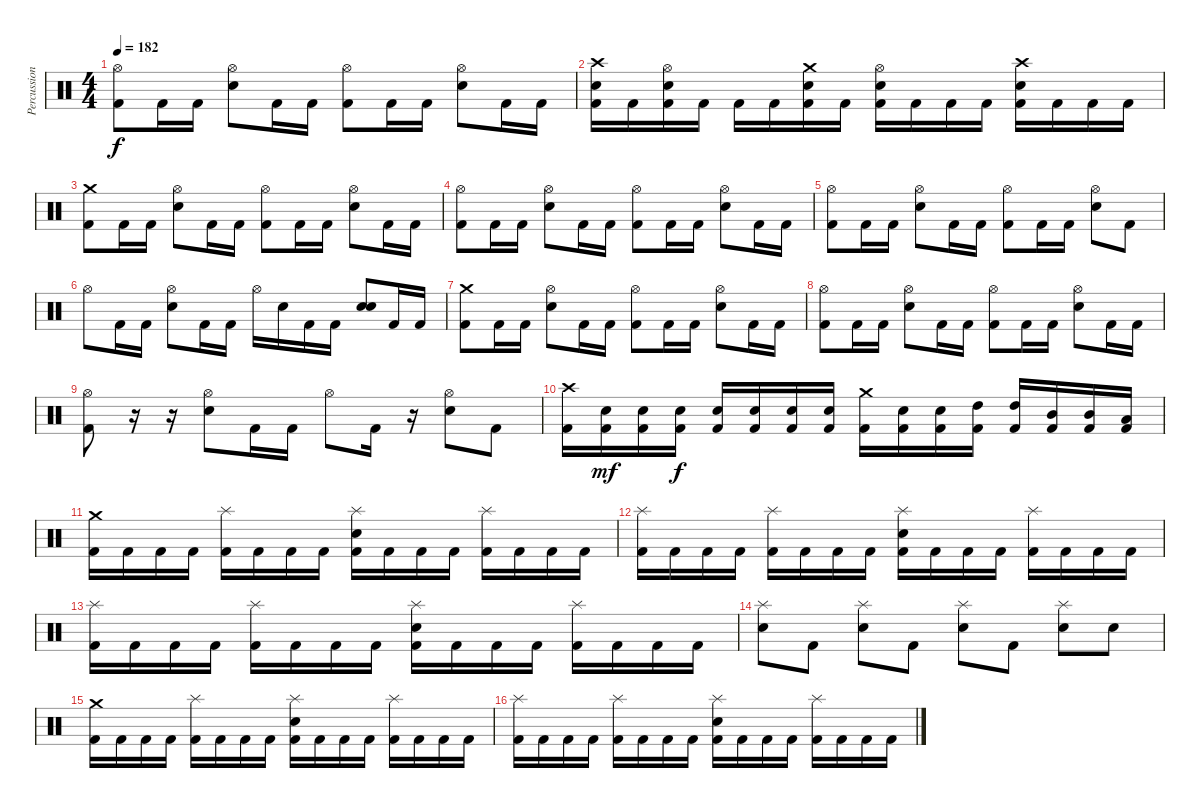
\track ("Percussion" "Percussion") {instrument percussion}
\staff {score}
\articulation defaults
\ts (4 4)
\tempo 182
\clef neutral
\ks c
("Hi-Hat (open)" "Kick (hit) 2").8{dy f} "Kick (hit) 2".16 "Kick (hit) 2".16 ("Hi-Hat (open)" "Electric Snare (hit)").8 "Kick (hit) 2".16 "Kick (hit) 2".16 ("Hi-Hat (open)" "Kick (hit) 2").8 "Kick (hit) 2".16 "Kick (hit) 2".16 ("Hi-Hat (open)" "Electric Snare (hit)").8 "Kick (hit) 2".16 "Kick (hit) 2".16 |
("Crash high (hit)" "Electric Snare (hit)" "Kick (hit) 2").16 "Kick (hit) 2".16 ("Hi-Hat (open)" "Electric Snare (hit)" "Kick (hit) 2").16 "Kick (hit) 2".16 "Kick (hit) 2".16 "Kick (hit) 2".16 ("Crash medium (hit)" "Electric Snare (hit)" "Kick (hit) 2").16 "Kick (hit) 2".16 ("Hi-Hat (open)" "Electric Snare (hit)" "Kick (hit) 2").16 "Kick (hit) 2".16 "Kick (hit) 2".16 "Kick (hit) 2".16 ("Crash high (hit)" "Electric Snare (hit)" "Kick (hit) 2").16 "Kick (hit) 2".16 "Kick (hit) 2".16 "Kick (hit) 2".16 |
("Crash medium (hit)" "Kick (hit) 2").8 "Kick (hit) 2".16 "Kick (hit) 2".16 ("Hi-Hat (open)" "Electric Snare (hit)").8 "Kick (hit) 2".16 "Kick (hit) 2".16 ("Hi-Hat (open)" "Kick (hit) 2").8 "Kick (hit) 2".16 "Kick (hit) 2".16 ("Hi-Hat (open)" "Electric Snare (hit)").8 "Kick (hit) 2".16 "Kick (hit) 2".16 |
("Hi-Hat (open)" "Kick (hit) 2").8 "Kick (hit) 2".16 "Kick (hit) 2".16 ("Hi-Hat (open)" "Electric Snare (hit)").8 "Kick (hit) 2".16 "Kick (hit) 2".16 ("Hi-Hat (open)" "Kick (hit) 2").8 "Kick (hit) 2".16 "Kick (hit) 2".16 ("Hi-Hat (open)" "Electric Snare (hit)").8 "Kick (hit) 2".16 "Kick (hit) 2".16 |
("Hi-Hat (open)" "Kick (hit) 2").8 "Kick (hit) 2".16 "Kick (hit) 2".16 ("Hi-Hat (open)" "Electric Snare (hit)").8 "Kick (hit) 2".16 "Kick (hit) 2".16 ("Hi-Hat (open)" "Kick (hit) 2").8 "Kick (hit) 2".16 "Kick (hit) 2".16 ("Hi-Hat (open)" "Electric Snare (hit)").8 "Kick (hit) 2".8 |
"Hi-Hat (open)".8 "Kick (hit) 2".16 "Kick (hit) 2".16 ("Hi-Hat (open)" "Electric Snare (hit)").8 "Kick (hit) 2".16 "Kick (hit) 2".16 "Hi-Hat (open)".16 "Electric Snare (hit)".16 "Kick (hit) 2".16 "Kick (hit) 2".16 ("Electric Snare (hit)" "Electric Snare (hit)").8 "Kick (hit) 2".16 "Kick (hit) 2".16 |
("Crash medium (hit)" "Kick (hit) 2").8 "Kick (hit) 2".16 "Kick (hit) 2".16 ("Hi-Hat (open)" "Electric Snare (hit)").8 "Kick (hit) 2".16 "Kick (hit) 2".16 ("Hi-Hat (open)" "Kick (hit) 2").8 "Kick (hit) 2".16 "Kick (hit) 2".16 ("Hi-Hat (open)" "Electric Snare (hit)").8 "Kick (hit) 2".16 "Kick (hit) 2".16 |
("Hi-Hat (open)" "Kick (hit) 2").8 "Kick (hit) 2".16 "Kick (hit) 2".16 ("Hi-Hat (open)" "Electric Snare (hit)").8 "Kick (hit) 2".16 "Kick (hit) 2".16 ("Hi-Hat (open)" "Kick (hit) 2").8 "Kick (hit) 2".16 "Kick (hit) 2".16 ("Hi-Hat (open)" "Electric Snare (hit)").8 "Kick (hit) 2".16 "Kick (hit) 2".16 |
("Hi-Hat (open)" "Kick (hit) 2").8 r.16 r.16 ("Hi-Hat (open)" "Electric Snare (hit)").8 "Kick (hit) 2".16 "Kick (hit) 2".16 "Hi-Hat (open)".8 "Kick (hit) 2".16 r.16 ("Hi-Hat (open)" "Electric Snare (hit)").8 "Kick (hit) 2".8 |
("Crash high (hit)" "Kick (hit) 2").16 ("Electric Snare (hit)" "Kick (hit) 2").16{dy mf} ("Electric Snare (hit)" "Kick (hit) 2").16 ("Electric Snare (hit)" "Kick (hit) 2").16{dy f} ("Electric Snare (hit)" "Kick (hit) 2").16 ("Electric Snare (hit)" "Kick (hit) 2").16 ("Electric Snare (hit)" "Kick (hit) 2").16 ("Electric Snare (hit)" "Kick (hit) 2").16 ("Crash medium (hit)" "Kick (hit) 2").16 ("Electric Snare (hit)" "Kick (hit) 2").16 ("Electric Snare (hit)" "Kick (hit) 2").16 ("High Tom (hit)" "Kick (hit) 2").16 ("High Tom (hit)" "Kick (hit) 2").16 ("Mid Tom (hit)" "Kick (hit) 2").16 ("Mid Tom (hit)" "Kick (hit) 2").16 ("Low Tom (hit)" "Kick (hit) 2").16 |
("Crash medium (hit)" "Kick (hit) 2").16 "Kick (hit) 2".16 "Kick (hit) 2".16 "Kick (hit) 2".16 ("Splash (hit)" "Kick (hit) 2").16 "Kick (hit) 2".16 "Kick (hit) 2".16 "Kick (hit) 2".16 ("Splash (hit)" "Electric Snare (hit)" "Kick (hit) 2").16 "Kick (hit) 2".16 "Kick (hit) 2".16 "Kick (hit) 2".16 ("Splash (hit)" "Kick (hit) 2").16 "Kick (hit) 2".16 "Kick (hit) 2".16 "Kick (hit) 2".16 |
("Splash (hit)" "Kick (hit) 2").16 "Kick (hit) 2".16 "Kick (hit) 2".16 "Kick (hit) 2".16 ("Splash (hit)" "Kick (hit) 2").16 "Kick (hit) 2".16 "Kick (hit) 2".16 "Kick (hit) 2".16 ("Splash (hit)" "Electric Snare (hit)" "Kick (hit) 2").16 "Kick (hit) 2".16 "Kick (hit) 2".16 "Kick (hit) 2".16 ("Splash (hit)" "Kick (hit) 2").16 "Kick (hit) 2".16 "Kick (hit) 2".16 "Kick (hit) 2".16 |
("Splash (hit)" "Kick (hit) 2").16 "Kick (hit) 2".16 "Kick (hit) 2".16 "Kick (hit) 2".16 ("Splash (hit)" "Kick (hit) 2").16 "Kick (hit) 2".16 "Kick (hit) 2".16 "Kick (hit) 2".16 ("Splash (hit)" "Electric Snare (hit)" "Kick (hit) 2").16 "Kick (hit) 2".16 "Kick (hit) 2".16 "Kick (hit) 2".16 ("Splash (hit)" "Kick (hit) 2").16 "Kick (hit) 2".16 "Kick (hit) 2".16 "Kick (hit) 2".16 |
("Splash (hit)" "Electric Snare (hit)").8 "Kick (hit) 2".8 ("Splash (hit)" "Electric Snare (hit)").8 "Kick (hit) 2".8 ("Splash (hit)" "Electric Snare (hit)").8 "Kick (hit) 2".8 ("Splash (hit)" "Electric Snare (hit)").8 "Electric Snare (hit)".8 |
("Crash medium (hit)" "Kick (hit) 2").16 "Kick (hit) 2".16 "Kick (hit) 2".16 "Kick (hit) 2".16 ("Splash (hit)" "Kick (hit) 2").16 "Kick (hit) 2".16 "Kick (hit) 2".16 "Kick (hit) 2".16 ("Splash (hit)" "Electric Snare (hit)" "Kick (hit) 2").16 "Kick (hit) 2".16 "Kick (hit) 2".16 "Kick (hit) 2".16 ("Splash (hit)" "Kick (hit) 2").16 "Kick (hit) 2".16 "Kick (hit) 2".16 "Kick (hit) 2".16 |
("Splash (hit)" "Kick (hit) 2").16 "Kick (hit) 2".16 "Kick (hit) 2".16 "Kick (hit) 2".16 ("Splash (hit)" "Kick (hit) 2").16 "Kick (hit) 2".16 "Kick (hit) 2".16 "Kick (hit) 2".16 ("Splash (hit)" "Electric Snare (hit)" "Kick (hit) 2").16 "Kick (hit) 2".16 "Kick (hit) 2".16 "Kick (hit) 2".16 ("Splash (hit)" "Kick (hit) 2").16 "Kick (hit) 2".16 "Kick (hit) 2".16 "Kick (hit) 2".16
